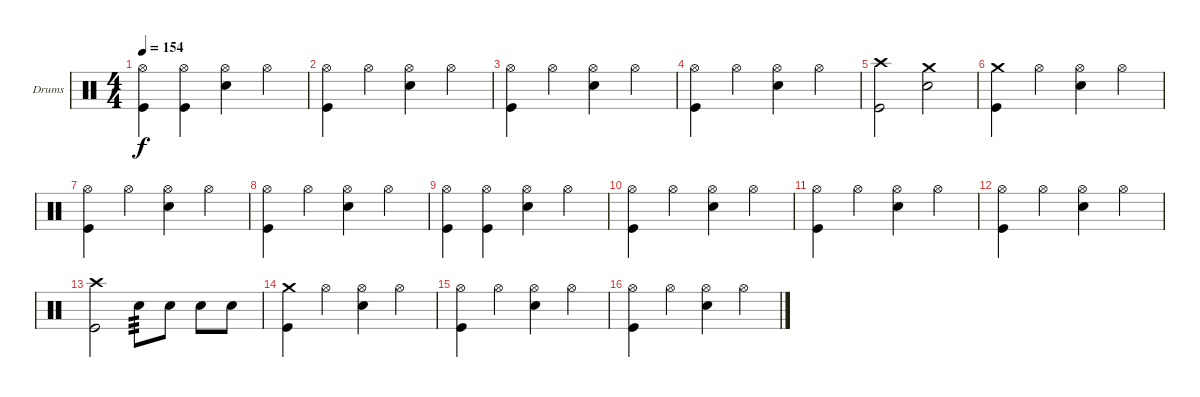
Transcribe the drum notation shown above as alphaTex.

\bracketExtendMode groupsimilarinstruments
\firstSystemTrackNameOrientation horizontal
\otherSystemsTrackNameOrientation horizontal
\track ("Drumkit (Christoph)" "Drums") {instrument percussion}
\staff {score}
\articulation defaults
\ts (4 4)
\tempo 154
\clef neutral
\ks c
("Hi-Hat (open)" "Kick (hit)").4{dy f} ("Hi-Hat (open)" "Kick (hit)").4 ("Hi-Hat (open)" "Snare (hit) 2").4 "Hi-Hat (open)".4 |
("Hi-Hat (open)" "Kick (hit)").4 "Hi-Hat (open)".4 ("Hi-Hat (open)" "Snare (hit) 2").4 "Hi-Hat (open)".4 |
("Hi-Hat (open)" "Kick (hit)").4 "Hi-Hat (open)".4 ("Hi-Hat (open)" "Snare (hit) 2").4 "Hi-Hat (open)".4 |
("Hi-Hat (open)" "Kick (hit)").4 "Hi-Hat (open)".4 ("Hi-Hat (open)" "Snare (hit) 2").4 "Hi-Hat (open)".4 |
("Crash high (hit)" "Kick (hit)").2 ("Crash medium (hit)" "Snare (hit) 2").2 |
("Crash medium (hit)" "Kick (hit)").4 "Hi-Hat (open)".4 ("Hi-Hat (open)" "Snare (hit) 2").4 "Hi-Hat (open)".4 |
("Hi-Hat (open)" "Kick (hit)").4 "Hi-Hat (open)".4 ("Hi-Hat (open)" "Snare (hit) 2").4 "Hi-Hat (open)".4 |
("Hi-Hat (open)" "Kick (hit)").4 "Hi-Hat (open)".4 ("Hi-Hat (open)" "Snare (hit) 2").4 "Hi-Hat (open)".4 |
("Hi-Hat (open)" "Kick (hit)").4 ("Hi-Hat (open)" "Kick (hit)").4 ("Hi-Hat (open)" "Snare (hit) 2").4 "Hi-Hat (open)".4 |
("Hi-Hat (open)" "Kick (hit)").4 "Hi-Hat (open)".4 ("Hi-Hat (open)" "Snare (hit) 2").4 "Hi-Hat (open)".4 |
("Hi-Hat (open)" "Kick (hit)").4 "Hi-Hat (open)".4 ("Hi-Hat (open)" "Snare (hit) 2").4 "Hi-Hat (open)".4 |
("Hi-Hat (open)" "Kick (hit)").4 "Hi-Hat (open)".4 ("Hi-Hat (open)" "Snare (hit) 2").4 "Hi-Hat (open)".4 |
("Crash high (hit)" "Kick (hit)").2 "Snare (hit) 2".8{tp 3} "Snare (hit) 2".8 "Snare (hit) 2".8 "Snare (hit) 2".8 |
("Crash medium (hit)" "Kick (hit)").4 "Hi-Hat (open)".4 ("Hi-Hat (open)" "Snare (hit) 2").4 "Hi-Hat (open)".4 |
("Hi-Hat (open)" "Kick (hit)").4 "Hi-Hat (open)".4 ("Hi-Hat (open)" "Snare (hit) 2").4 "Hi-Hat (open)".4 |
("Hi-Hat (open)" "Kick (hit)").4 "Hi-Hat (open)".4 ("Hi-Hat (open)" "Snare (hit) 2").4 "Hi-Hat (open)".4
